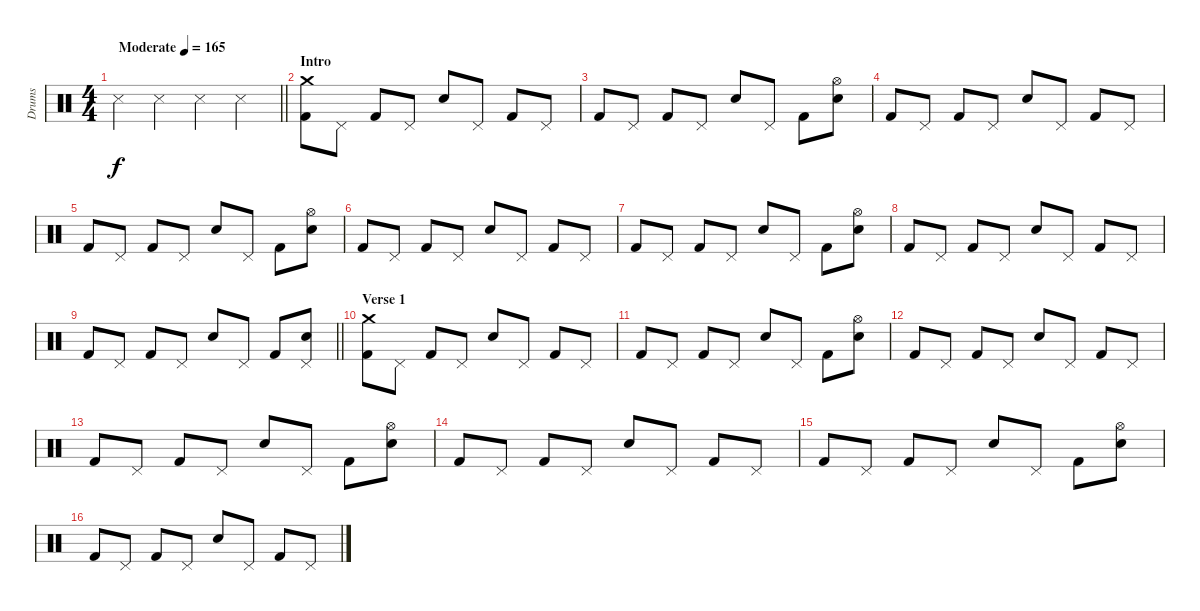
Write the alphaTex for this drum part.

\track ("Drums" "Drums") {instrument percussion}
\staff {score}
\articulation defaults
\ts (4 4)
\tempo (165 "Moderate")
\clef neutral
\barLineRight lightlight
\ks c "Snare (side stick) 3".4{dy f} "Snare (side stick) 3".4 "Snare (side stick) 3".4 "Snare (side stick) 3".4
|
\section ("" "Intro")
("Crash medium (hit)" "Kick (hit) 2").8 "Pedal Hi-Hat (hit)".8 "Kick (hit) 2".8 "Pedal Hi-Hat (hit)".8 "Electric Snare (hit)".8 "Pedal Hi-Hat (hit)".8 "Kick (hit) 2".8 "Pedal Hi-Hat (hit)".8 |
"Kick (hit) 2".8 "Pedal Hi-Hat (hit)".8 "Kick (hit) 2".8 "Pedal Hi-Hat (hit)".8 "Electric Snare (hit)".8 "Pedal Hi-Hat (hit)".8 "Kick (hit) 2".8 ("Hi-Hat (open)" "Electric Snare (hit)").8 |
"Kick (hit) 2".8 "Pedal Hi-Hat (hit)".8 "Kick (hit) 2".8 "Pedal Hi-Hat (hit)".8 "Electric Snare (hit)".8 "Pedal Hi-Hat (hit)".8 "Kick (hit) 2".8 "Pedal Hi-Hat (hit)".8 |
"Kick (hit) 2".8 "Pedal Hi-Hat (hit)".8 "Kick (hit) 2".8 "Pedal Hi-Hat (hit)".8 "Electric Snare (hit)".8 "Pedal Hi-Hat (hit)".8 "Kick (hit) 2".8 ("Hi-Hat (open)" "Electric Snare (hit)").8 |
"Kick (hit) 2".8 "Pedal Hi-Hat (hit)".8 "Kick (hit) 2".8 "Pedal Hi-Hat (hit)".8 "Electric Snare (hit)".8 "Pedal Hi-Hat (hit)".8 "Kick (hit) 2".8 "Pedal Hi-Hat (hit)".8 |
"Kick (hit) 2".8 "Pedal Hi-Hat (hit)".8 "Kick (hit) 2".8 "Pedal Hi-Hat (hit)".8 "Electric Snare (hit)".8 "Pedal Hi-Hat (hit)".8 "Kick (hit) 2".8 ("Hi-Hat (open)" "Electric Snare (hit)").8 |
"Kick (hit) 2".8 "Pedal Hi-Hat (hit)".8 "Kick (hit) 2".8 "Pedal Hi-Hat (hit)".8 "Electric Snare (hit)".8 "Pedal Hi-Hat (hit)".8 "Kick (hit) 2".8 "Pedal Hi-Hat (hit)".8 |
\barLineRight lightlight "Kick (hit) 2".8 "Pedal Hi-Hat (hit)".8 "Kick (hit) 2".8 "Pedal Hi-Hat (hit)".8 "Electric Snare (hit)".8 "Pedal Hi-Hat (hit)".8 "Kick (hit) 2".8
("Pedal Hi-Hat (hit)" "Electric Snare (hit)").8 |
\section ("" "Verse 1")
("Crash medium (hit)" "Kick (hit) 2").8 "Pedal Hi-Hat (hit)".8 "Kick (hit) 2".8 "Pedal Hi-Hat (hit)".8 "Electric Snare (hit)".8 "Pedal Hi-Hat (hit)".8 "Kick (hit) 2".8 "Pedal Hi-Hat (hit)".8 |
"Kick (hit) 2".8 "Pedal Hi-Hat (hit)".8 "Kick (hit) 2".8 "Pedal Hi-Hat (hit)".8 "Electric Snare (hit)".8 "Pedal Hi-Hat (hit)".8 "Kick (hit) 2".8 ("Hi-Hat (open)" "Electric Snare (hit)").8 |
"Kick (hit) 2".8 "Pedal Hi-Hat (hit)".8 "Kick (hit) 2".8 "Pedal Hi-Hat (hit)".8 "Electric Snare (hit)".8 "Pedal Hi-Hat (hit)".8 "Kick (hit) 2".8 "Pedal Hi-Hat (hit)".8 |
"Kick (hit) 2".8 "Pedal Hi-Hat (hit)".8 "Kick (hit) 2".8 "Pedal Hi-Hat (hit)".8 "Electric Snare (hit)".8 "Pedal Hi-Hat (hit)".8 "Kick (hit) 2".8 ("Hi-Hat (open)" "Electric Snare (hit)").8 |
"Kick (hit) 2".8 "Pedal Hi-Hat (hit)".8 "Kick (hit) 2".8 "Pedal Hi-Hat (hit)".8 "Electric Snare (hit)".8 "Pedal Hi-Hat (hit)".8 "Kick (hit) 2".8 "Pedal Hi-Hat (hit)".8 |
"Kick (hit) 2".8 "Pedal Hi-Hat (hit)".8 "Kick (hit) 2".8 "Pedal Hi-Hat (hit)".8 "Electric Snare (hit)".8 "Pedal Hi-Hat (hit)".8 "Kick (hit) 2".8 ("Hi-Hat (open)" "Electric Snare (hit)").8 |
"Kick (hit) 2".8 "Pedal Hi-Hat (hit)".8 "Kick (hit) 2".8 "Pedal Hi-Hat (hit)".8 "Electric Snare (hit)".8 "Pedal Hi-Hat (hit)".8 "Kick (hit) 2".8 "Pedal Hi-Hat (hit)".8
